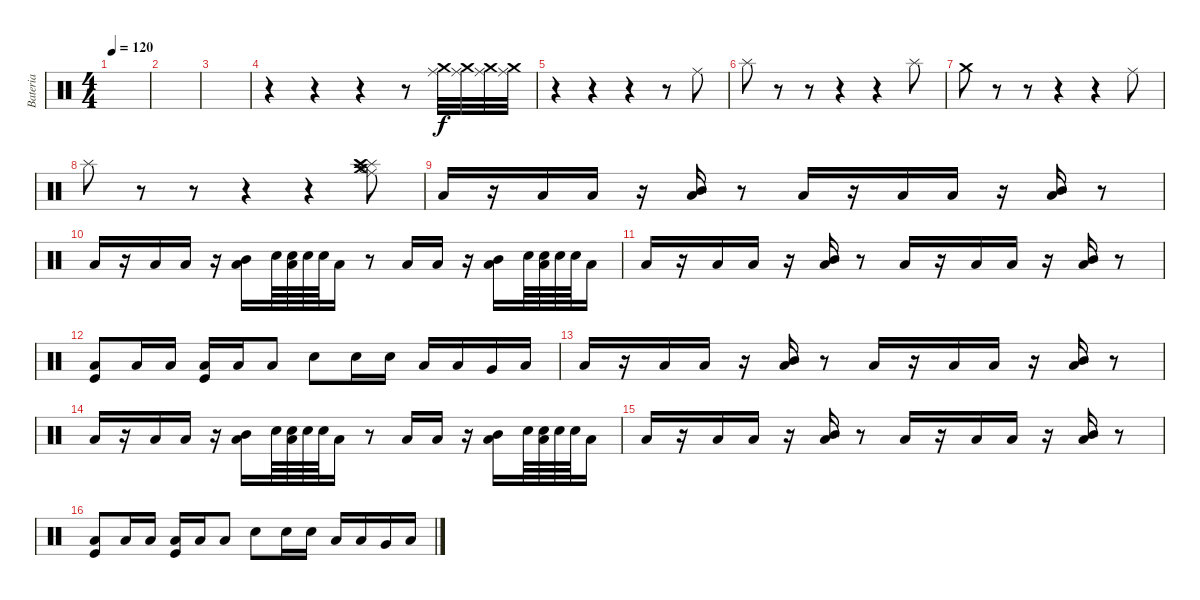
\track ("Bateria" "Bateria") {instrument percussion}
\staff {score}
\articulation defaults
\ts (4 4)
\tempo 120
\clef neutral
\ks c
|
|
|
r.4 r.4 r.4 r.8 ("Crash medium (hit)" "Ride (middle)").32 ("Ride (middle)" "Crash medium (hit)").32 ("Crash medium (hit)" "Ride (middle)").32 ("Crash medium (hit)" "Ride (middle)").32 |
r.4 r.4 r.4 r.8 "Ride (middle)".8 |
"Splash (hit)".8 r.8 r.8 r.4 r.4 "Splash (hit)".8 |
"Crash medium (hit)".8 r.8 r.8 r.4 r.4 "Ride (middle)".8 |
"Splash (hit)".8 r.8 r.8 r.4 r.4 ("Crash medium (hit)" "Splash (hit)" "Hi-Hat (open)" "Ride (middle)" "Crash high (hit)").8 |
"Low Tom (hit)".16 r.16 "Low Floor Tom (hit)".16 "Low Tom (hit)".16 r.16 ("Mid Tom (hit)" "Low Floor Tom (hit)").16 r.8 "Low Tom (hit)".16 r.16 "Low Floor Tom (hit)".16 "Low Tom (hit)".16 r.16 ("Mid Tom (hit)" "Low Floor Tom (hit)").16 r.8 |
"Low Tom (hit)".16 r.16 "Low Floor Tom (hit)".16 "Low Tom (hit)".16 r.16 ("Mid Tom (hit)" "Low Floor Tom (hit)").16 "Snare (hit) 2".64 ("Snare (hit) 2" "Low Floor Tom (hit)").64 "Snare (hit) 2".64 "Snare (hit) 2".64 "Low Tom (hit)".16 r.8 "Low Floor Tom (hit)".16 "Low Tom (hit)".16 r.16 ("Mid Tom (hit)" "Low Floor Tom (hit)").16 "Snare (hit) 2".64 ("Snare (hit) 2" "Low Floor Tom (hit)").64 "Snare (hit) 2".64 "Snare (hit) 2".64 "Low Tom (hit)".16 |
"Low Tom (hit)".16 r.16 "Low Floor Tom (hit)".16 "Low Tom (hit)".16 r.16 ("Mid Tom (hit)" "Low Floor Tom (hit)").16 r.8 "Low Tom (hit)".16 r.16 "Low Floor Tom (hit)".16 "Low Tom (hit)".16 r.16 ("Mid Tom (hit)" "Low Floor Tom (hit)").16 r.8 |
("Low Floor Tom (hit)" "Kick (hit)").8 "Low Floor Tom (hit)".16 "Low Floor Tom (hit)".16 ("Low Floor Tom (hit)" "Kick (hit)").16 "Low Floor Tom (hit)".16 "Low Floor Tom (hit)".8 "Snare (hit) 2".8 "Snare (hit) 2".16 "Snare (hit) 2".16 "Low Tom (hit)".16 "Low Tom (hit)".16 "Very Low Tom (hit)".16 "Low Floor Tom (hit)".16 |
"Low Tom (hit)".16 r.16 "Low Floor Tom (hit)".16 "Low Tom (hit)".16 r.16 ("Mid Tom (hit)" "Low Floor Tom (hit)").16 r.8 "Low Tom (hit)".16 r.16 "Low Floor Tom (hit)".16 "Low Tom (hit)".16 r.16 ("Mid Tom (hit)" "Low Floor Tom (hit)").16 r.8 |
"Low Tom (hit)".16 r.16 "Low Floor Tom (hit)".16 "Low Tom (hit)".16 r.16 ("Mid Tom (hit)" "Low Floor Tom (hit)").16 "Snare (hit) 2".64 ("Snare (hit) 2" "Low Floor Tom (hit)").64 "Snare (hit) 2".64 "Snare (hit) 2".64 "Low Tom (hit)".16 r.8 "Low Floor Tom (hit)".16 "Low Tom (hit)".16 r.16 ("Mid Tom (hit)" "Low Floor Tom (hit)").16 "Snare (hit) 2".64 ("Snare (hit) 2" "Low Floor Tom (hit)").64 "Snare (hit) 2".64 "Snare (hit) 2".64 "Low Tom (hit)".16 |
"Low Tom (hit)".16 r.16 "Low Floor Tom (hit)".16 "Low Tom (hit)".16 r.16 ("Mid Tom (hit)" "Low Floor Tom (hit)").16 r.8 "Low Tom (hit)".16 r.16 "Low Floor Tom (hit)".16 "Low Tom (hit)".16 r.16 ("Mid Tom (hit)" "Low Floor Tom (hit)").16 r.8 |
("Low Floor Tom (hit)" "Kick (hit)").8 "Low Floor Tom (hit)".16 "Low Floor Tom (hit)".16 ("Low Floor Tom (hit)" "Kick (hit)").16 "Low Floor Tom (hit)".16 "Low Floor Tom (hit)".8 "Snare (hit) 2".8 "Snare (hit) 2".16 "Snare (hit) 2".16 "Low Tom (hit)".16 "Low Tom (hit)".16 "Very Low Tom (hit)".16 "Low Floor Tom (hit)".16
